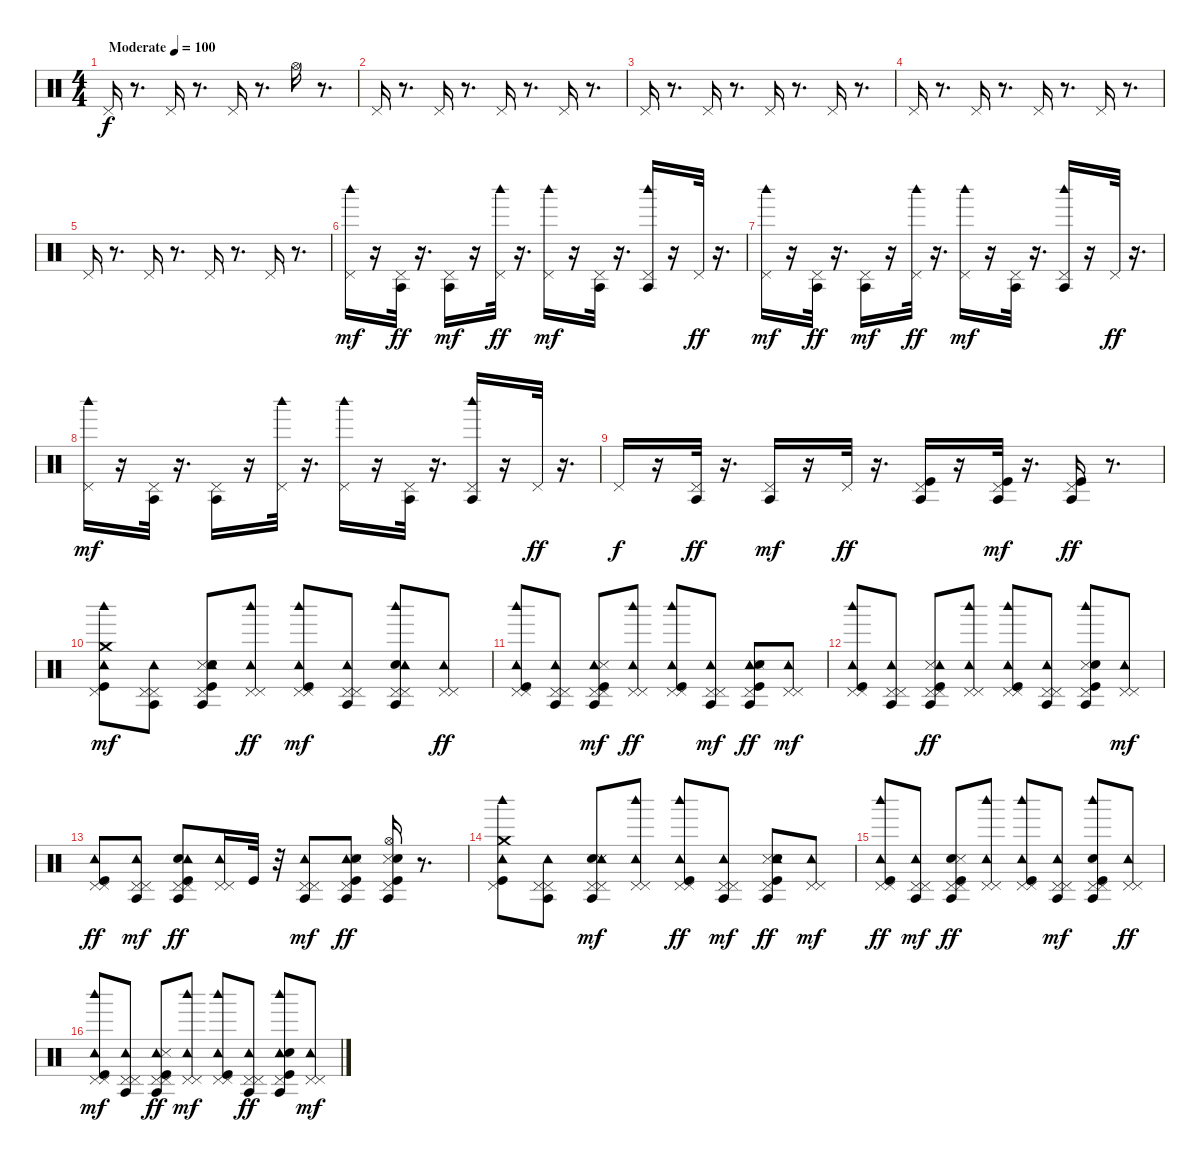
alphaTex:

\track "" {instrument percussion}
\staff {score}
\articulation defaults
\ts (4 4)
\tempo (100 "Moderate")
\clef neutral
\ks c "Pedal Hi-Hat (hit)".16{dy f}
r.8{d} "Pedal Hi-Hat (hit)".16 r.8{d} "Pedal Hi-Hat (hit)".16 r.8{d} "Hi-Hat (open)".16 r.8{d} |
"Pedal Hi-Hat (hit)".16 r.8{d} "Pedal Hi-Hat (hit)".16 r.8{d} "Pedal Hi-Hat (hit)".16 r.8{d} "Pedal Hi-Hat (hit)".16 r.8{d} |
"Pedal Hi-Hat (hit)".16 r.8{d} "Pedal Hi-Hat (hit)".16 r.8{d} "Pedal Hi-Hat (hit)".16 r.8{d} "Pedal Hi-Hat (hit)".16 r.8{d} |
"Pedal Hi-Hat (hit)".16 r.8{d} "Pedal Hi-Hat (hit)".16 r.8{d} "Pedal Hi-Hat (hit)".16 r.8{d} "Pedal Hi-Hat (hit)".16 r.8{d} |
"Pedal Hi-Hat (hit)".16 r.8{d} "Pedal Hi-Hat (hit)".16 r.8{d} "Pedal Hi-Hat (hit)".16 r.8{d} "Pedal Hi-Hat (hit)".16 r.8{d} |
("Pedal Hi-Hat (hit)" "Woodblock high (hit)").16{dy mf} r.16 ("Agogo tow (hit)" "Pedal Hi-Hat (hit)").32{dy ff} r.16{d} ("Pedal Hi-Hat (hit)" "Agogo tow (hit)").16{dy mf} r.16 ("Woodblock high (hit)" "Pedal Hi-Hat (hit)").32{dy ff} r.16{d} ("Pedal Hi-Hat (hit)" "Woodblock high (hit)").16{dy mf} r.16 ("Pedal Hi-Hat (hit)" "Agogo tow (hit)").32 r.16{d} ("Pedal Hi-Hat (hit)" "Agogo tow (hit)" "Woodblock high (hit)").16 r.16 "Pedal Hi-Hat (hit)".32{dy ff} r.16{d} |
("Woodblock high (hit)" "Pedal Hi-Hat (hit)").16{dy mf} r.16 ("Agogo tow (hit)" "Pedal Hi-Hat (hit)").32{dy ff} r.16{d} ("Pedal Hi-Hat (hit)" "Agogo tow (hit)").16{dy mf} r.16 ("Woodblock high (hit)" "Pedal Hi-Hat (hit)").32{dy ff} r.16{d} ("Woodblock high (hit)" "Pedal Hi-Hat (hit)").16{dy mf} r.16 ("Pedal Hi-Hat (hit)" "Agogo tow (hit)").32 r.16{d} ("Woodblock high (hit)" "Pedal Hi-Hat (hit)" "Agogo tow (hit)").16 r.16 "Pedal Hi-Hat (hit)".32{dy ff} r.16{d} |
("Woodblock high (hit)" "Pedal Hi-Hat (hit)").16{dy mf} r.16 ("Pedal Hi-Hat (hit)" "Agogo tow (hit)").32 r.16{d} ("Agogo tow (hit)" "Pedal Hi-Hat (hit)").16 r.16 ("Pedal Hi-Hat (hit)" "Woodblock high (hit)").32 r.16{d} ("Pedal Hi-Hat (hit)" "Woodblock high (hit)").16 r.16 ("Pedal Hi-Hat (hit)" "Agogo tow (hit)").32 r.16{d} ("Woodblock high (hit)" "Pedal Hi-Hat (hit)" "Agogo tow (hit)").16 r.16 "Pedal Hi-Hat (hit)".32{dy ff} r.16{d} |
"Pedal Hi-Hat (hit)".16{dy f} r.16 ("Agogo tow (hit)" "Pedal Hi-Hat (hit)").32{dy ff} r.16{d} ("Pedal Hi-Hat (hit)" "Agogo tow (hit)").16{dy mf} r.16 "Pedal Hi-Hat (hit)".32{dy ff} r.16{d} ("Agogo tow (hit)" "Pedal Hi-Hat (hit)" "Kick (hit)").16 r.16 ("Kick (hit)" "Pedal Hi-Hat (hit)" "Agogo tow (hit)").32{dy mf} r.16{d} ("Pedal Hi-Hat (hit)" "Agogo tow (hit)" "Kick (hit)").16{dy ff} r.8{d} |
("Tambourine (hit)" "Pedal Hi-Hat (hit)" "Kick (hit)" "Woodblock high (hit)" "Crash medium (hit)").8{dy mf} ("Pedal Hi-Hat (hit)" "Pedal Hi-Hat (hit)" "Tambourine (hit)" "Agogo tow (hit)").8 ("Snare (side stick) 3" "Kick (hit)" "Snare (hit) 2" "Tambourine (hit)" "Pedal Hi-Hat (hit)" "Agogo tow (hit)").8 ("Tambourine (hit)" "Woodblock high (hit)" "Pedal Hi-Hat (hit)" "Pedal Hi-Hat (hit)").8{dy ff} ("Pedal Hi-Hat (hit)" "Woodblock high (hit)" "Kick (hit)" "Tambourine (hit)" "Pedal Hi-Hat (hit)").8{dy mf} ("Agogo tow (hit)" "Pedal Hi-Hat (hit)" "Pedal Hi-Hat (hit)" "Tambourine (hit)").8 ("Snare (hit) 2" "Agogo tow (hit)" "Pedal Hi-Hat (hit)" "Woodblock high (hit)" "Pedal Hi-Hat (hit)" "Tambourine (hit)").8 ("Tambourine (hit)" "Pedal Hi-Hat (hit)" "Pedal Hi-Hat (hit)").8{dy ff} |
("Woodblock high (hit)" "Kick (hit)" "Pedal Hi-Hat (hit)" "Tambourine (hit)" "Pedal Hi-Hat (hit)").8 ("Tambourine (hit)" "Pedal Hi-Hat (hit)" "Agogo tow (hit)" "Pedal Hi-Hat (hit)").8 ("Pedal Hi-Hat (hit)" "Kick (hit)" "Tambourine (hit)" "Pedal Hi-Hat (hit)" "Agogo tow (hit)" "Snare (side stick) 3").8{dy mf} ("Pedal Hi-Hat (hit)" "Woodblock high (hit)" "Tambourine (hit)" "Pedal Hi-Hat (hit)").8{dy ff} ("Woodblock high (hit)" "Pedal Hi-Hat (hit)" "Pedal Hi-Hat (hit)" "Tambourine (hit)" "Kick (hit)").8 ("Pedal Hi-Hat (hit)" "Tambourine (hit)" "Agogo tow (hit)" "Pedal Hi-Hat (hit)").8{dy mf} ("Tambourine (hit)" "Snare (side stick) 3" "Agogo tow (hit)" "Snare (hit) 2" "Pedal Hi-Hat (hit)" "Kick (hit)").8{dy ff} ("Pedal Hi-Hat (hit)" "Tambourine (hit)" "Pedal Hi-Hat (hit)").8{dy mf} |
("Tambourine (hit)" "Pedal Hi-Hat (hit)" "Pedal Hi-Hat (hit)" "Kick (hit)" "Woodblock high (hit)").8 ("Pedal Hi-Hat (hit)" "Tambourine (hit)" "Pedal Hi-Hat (hit)" "Agogo tow (hit)").8 ("Agogo tow (hit)" "Snare (side stick) 3" "Tambourine (hit)" "Pedal Hi-Hat (hit)" "Pedal Hi-Hat (hit)" "Kick (hit)").8{dy ff} ("Tambourine (hit)" "Pedal Hi-Hat (hit)" "Woodblock high (hit)" "Pedal Hi-Hat (hit)").8 ("Pedal Hi-Hat (hit)" "Woodblock high (hit)" "Tambourine (hit)" "Kick (hit)" "Pedal Hi-Hat (hit)").8 ("Agogo tow (hit)" "Tambourine (hit)" "Pedal Hi-Hat (hit)" "Pedal Hi-Hat (hit)").8 ("Woodblock high (hit)" "Kick (hit)" "Agogo tow (hit)" "Snare (side stick) 3" "Snare (hit) 2" "Pedal Hi-Hat (hit)").8 ("Pedal Hi-Hat (hit)" "Tambourine (hit)" "Pedal Hi-Hat (hit)").8{dy mf} |
("Pedal Hi-Hat (hit)" "Kick (hit)" "Pedal Hi-Hat (hit)" "Tambourine (hit)").8{dy ff} ("Pedal Hi-Hat (hit)" "Tambourine (hit)" "Pedal Hi-Hat (hit)" "Agogo tow (hit)").8{dy mf} ("Agogo tow (hit)" "Snare (hit) 2" "Tambourine (hit)" "Pedal Hi-Hat (hit)" "Pedal Hi-Hat (hit)" "Kick (hit)").8{dy ff} ("Tambourine (hit)" "Pedal Hi-Hat (hit)" "Pedal Hi-Hat (hit)").16 "Kick (hit)".32 r.32 ("Pedal Hi-Hat (hit)" "Agogo tow (hit)" "Tambourine (hit)" "Pedal Hi-Hat (hit)").8{dy mf} ("Kick (hit)" "Tambourine (hit)" "Snare (side stick) 3" "Agogo tow (hit)" "Snare (hit) 2" "Pedal Hi-Hat (hit)").8{dy ff} ("Pedal Hi-Hat (hit)" "Agogo tow (hit)" "Snare (side stick) 3" "Kick (hit)" "Snare (hit) 2" "Hi-Hat (open)").16 r.8{d} |
("Pedal Hi-Hat (hit)" "Tambourine (hit)" "Crash medium (hit)" "Woodblock high (hit)" "Kick (hit)").8 ("Agogo tow (hit)" "Tambourine (hit)" "Pedal Hi-Hat (hit)" "Pedal Hi-Hat (hit)").8 ("Snare (hit) 2" "Pedal Hi-Hat (hit)" "Agogo tow (hit)" "Snare (side stick) 3" "Pedal Hi-Hat (hit)" "Tambourine (hit)").8{dy mf} ("Woodblock high (hit)" "Pedal Hi-Hat (hit)" "Tambourine (hit)" "Pedal Hi-Hat (hit)").8 ("Woodblock high (hit)" "Tambourine (hit)" "Pedal Hi-Hat (hit)" "Pedal Hi-Hat (hit)" "Kick (hit)").8{dy ff} ("Tambourine (hit)" "Pedal Hi-Hat (hit)" "Pedal Hi-Hat (hit)" "Agogo tow (hit)").8{dy mf} ("Snare (side stick) 3" "Pedal Hi-Hat (hit)" "Kick (hit)" "Tambourine (hit)" "Agogo tow (hit)" "Snare (hit) 2").8{dy ff} ("Pedal Hi-Hat (hit)" "Tambourine (hit)" "Pedal Hi-Hat (hit)").8{dy mf} |
("Woodblock high (hit)" "Pedal Hi-Hat (hit)" "Pedal Hi-Hat (hit)" "Kick (hit)" "Tambourine (hit)").8{dy ff} ("Agogo tow (hit)" "Pedal Hi-Hat (hit)" "Pedal Hi-Hat (hit)" "Tambourine (hit)").8{dy mf} ("Snare (hit) 2" "Agogo tow (hit)" "Snare (side stick) 3" "Pedal Hi-Hat (hit)" "Pedal Hi-Hat (hit)" "Kick (hit)").8{dy ff} ("Tambourine (hit)" "Woodblock high (hit)" "Pedal Hi-Hat (hit)" "Pedal Hi-Hat (hit)").8 ("Tambourine (hit)" "Pedal Hi-Hat (hit)" "Woodblock high (hit)" "Pedal Hi-Hat (hit)" "Kick (hit)").8 ("Agogo tow (hit)" "Pedal Hi-Hat (hit)" "Pedal Hi-Hat (hit)" "Tambourine (hit)").8{dy mf} ("Pedal Hi-Hat (hit)" "Kick (hit)" "Snare (hit) 2" "Woodblock high (hit)" "Pedal Hi-Hat (hit)" "Agogo tow (hit)").8 ("Tambourine (hit)" "Pedal Hi-Hat (hit)" "Pedal Hi-Hat (hit)").8{dy ff} |
("Pedal Hi-Hat (hit)" "Kick (hit)" "Pedal Hi-Hat (hit)" "Tambourine (hit)" "Woodblock high (hit)").8{dy mf} ("Pedal Hi-Hat (hit)" "Agogo tow (hit)" "Tambourine (hit)" "Pedal Hi-Hat (hit)").8 ("Tambourine (hit)" "Pedal Hi-Hat (hit)" "Pedal Hi-Hat (hit)" "Agogo tow (hit)" "Snare (side stick) 3" "Kick (hit)").8{dy ff} ("Pedal Hi-Hat (hit)" "Tambourine (hit)" "Pedal Hi-Hat (hit)" "Woodblock high (hit)").8{dy mf} ("Kick (hit)" "Tambourine (hit)" "Pedal Hi-Hat (hit)" "Woodblock high (hit)" "Pedal Hi-Hat (hit)").8 ("Pedal Hi-Hat (hit)" "Tambourine (hit)" "Agogo tow (hit)" "Pedal Hi-Hat (hit)").8{dy ff} ("Tambourine (hit)" "Agogo tow (hit)" "Woodblock high (hit)" "Kick (hit)" "Snare (hit) 2" "Pedal Hi-Hat (hit)").8 ("Pedal Hi-Hat (hit)" "Tambourine (hit)" "Pedal Hi-Hat (hit)").8{dy mf}
